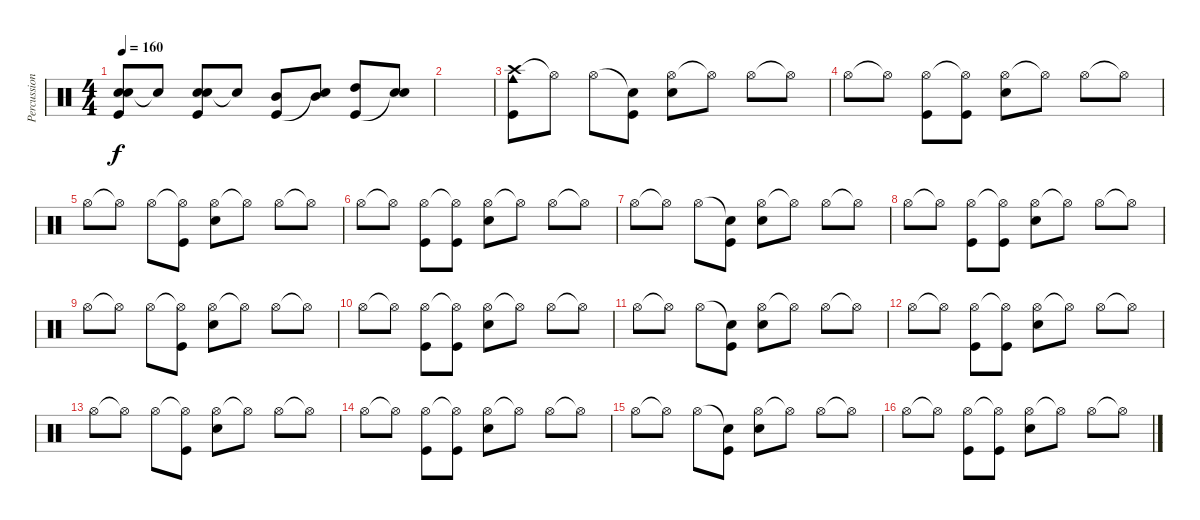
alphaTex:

\track ("Percussion" "Percussion") {instrument percussion}
\staff {score}
\articulation defaults
\ts (4 4)
\tempo 160
\clef neutral
\ks c
("Snare (hit) 2" "Snare (hit) 2" "Kick (hit)").8{dy f} "Snare (hit)"{t}.8 ("Snare (hit) 2" "Snare (hit) 2" "Kick (hit)").8 "Snare (hit)"{t}.8 ("Mid Tom (hit)" "Kick (hit)").8 ("Mid Tom (hit)" "Snare (hit)"{t}).8 ("High Tom (hit)" "Kick (hit)").8 ("Snare (hit) 2" "Snare (hit)"{t}).8 |
|
("Crash high (hit)" "Cowbell medium (hit)" "Kick (hit)").8 "Hi-Hat (open)"{t}.8 "Hi-Hat (open)".8 ("Snare (hit)"{t} "Kick (hit)").8 ("Hi-Hat (open)" "Snare (hit) 2").8 "Hi-Hat (open)"{t}.8 "Hi-Hat (open)".8 "Hi-Hat (open)"{t}.8 |
"Hi-Hat (open)".8 "Hi-Hat (open)"{t}.8 ("Hi-Hat (open)" "Kick (hit)").8 ("Hi-Hat (open)"{t} "Kick (hit)").8 ("Hi-Hat (open)" "Snare (hit) 2").8 "Hi-Hat (open)"{t}.8 "Hi-Hat (open)".8 "Hi-Hat (open)"{t}.8 |
"Hi-Hat (open)".8 "Hi-Hat (open)"{t}.8 "Hi-Hat (open)".8 ("Hi-Hat (open)"{t} "Kick (hit)").8 ("Hi-Hat (open)" "Snare (hit) 2").8 "Hi-Hat (open)"{t}.8 "Hi-Hat (open)".8 "Hi-Hat (open)"{t}.8 |
"Hi-Hat (open)".8 "Hi-Hat (open)"{t}.8 ("Hi-Hat (open)" "Kick (hit)").8 ("Hi-Hat (open)"{t} "Kick (hit)").8 ("Hi-Hat (open)" "Snare (hit) 2").8 "Hi-Hat (open)"{t}.8 "Hi-Hat (open)".8 "Hi-Hat (open)"{t}.8 |
"Hi-Hat (open)".8 "Hi-Hat (open)"{t}.8 "Hi-Hat (open)".8 ("Snare (hit)"{t} "Kick (hit)").8 ("Hi-Hat (open)" "Snare (hit) 2").8 "Hi-Hat (open)"{t}.8 "Hi-Hat (open)".8 "Hi-Hat (open)"{t}.8 |
"Hi-Hat (open)".8 "Hi-Hat (open)"{t}.8 ("Hi-Hat (open)" "Kick (hit)").8 ("Hi-Hat (open)"{t} "Kick (hit)").8 ("Hi-Hat (open)" "Snare (hit) 2").8 "Hi-Hat (open)"{t}.8 "Hi-Hat (open)".8 "Hi-Hat (open)"{t}.8 |
"Hi-Hat (open)".8 "Hi-Hat (open)"{t}.8 "Hi-Hat (open)".8 ("Hi-Hat (open)"{t} "Kick (hit)").8 ("Hi-Hat (open)" "Snare (hit) 2").8 "Hi-Hat (open)"{t}.8 "Hi-Hat (open)".8 "Hi-Hat (open)"{t}.8 |
"Hi-Hat (open)".8 "Hi-Hat (open)"{t}.8 ("Hi-Hat (open)" "Kick (hit)").8 ("Hi-Hat (open)"{t} "Kick (hit)").8 ("Hi-Hat (open)" "Snare (hit) 2").8 "Hi-Hat (open)"{t}.8 "Hi-Hat (open)".8 "Hi-Hat (open)"{t}.8 |
"Hi-Hat (open)".8 "Hi-Hat (open)"{t}.8 "Hi-Hat (open)".8 ("Snare (hit)"{t} "Kick (hit)").8 ("Hi-Hat (open)" "Snare (hit) 2").8 "Hi-Hat (open)"{t}.8 "Hi-Hat (open)".8 "Hi-Hat (open)"{t}.8 |
"Hi-Hat (open)".8 "Hi-Hat (open)"{t}.8 ("Hi-Hat (open)" "Kick (hit)").8 ("Hi-Hat (open)"{t} "Kick (hit)").8 ("Hi-Hat (open)" "Snare (hit) 2").8 "Hi-Hat (open)"{t}.8 "Hi-Hat (open)".8 "Hi-Hat (open)"{t}.8 |
"Hi-Hat (open)".8 "Hi-Hat (open)"{t}.8 "Hi-Hat (open)".8 ("Hi-Hat (open)"{t} "Kick (hit)").8 ("Hi-Hat (open)" "Snare (hit) 2").8 "Hi-Hat (open)"{t}.8 "Hi-Hat (open)".8 "Hi-Hat (open)"{t}.8 |
"Hi-Hat (open)".8 "Hi-Hat (open)"{t}.8 ("Hi-Hat (open)" "Kick (hit)").8 ("Hi-Hat (open)"{t} "Kick (hit)").8 ("Hi-Hat (open)" "Snare (hit) 2").8 "Hi-Hat (open)"{t}.8 "Hi-Hat (open)".8 "Hi-Hat (open)"{t}.8 |
"Hi-Hat (open)".8 "Hi-Hat (open)"{t}.8 "Hi-Hat (open)".8 ("Snare (hit)"{t} "Kick (hit)").8 ("Hi-Hat (open)" "Snare (hit) 2").8 "Hi-Hat (open)"{t}.8 "Hi-Hat (open)".8 "Hi-Hat (open)"{t}.8 |
"Hi-Hat (open)".8 "Hi-Hat (open)"{t}.8 ("Hi-Hat (open)" "Kick (hit)").8 ("Hi-Hat (open)"{t} "Kick (hit)").8 ("Hi-Hat (open)" "Snare (hit) 2").8 "Hi-Hat (open)"{t}.8 "Hi-Hat (open)".8 "Hi-Hat (open)"{t}.8
